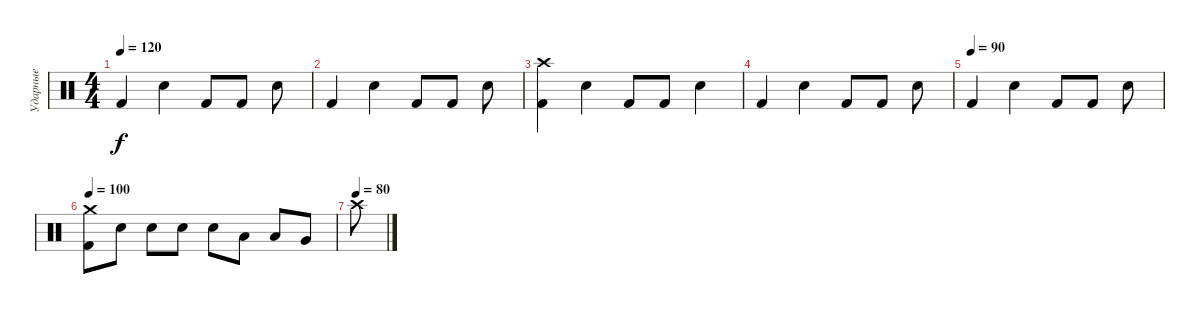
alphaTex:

\track ("Ударные" "Ударные") {instrument percussion}
\staff {score}
\articulation defaults
\ts (4 4)
\tempo 120
\clef neutral
\ks c "Kick (hit) 2".4{dy f} "Electric Snare (hit)".4 "Kick (hit) 2".8 "Kick (hit) 2".8 "Electric Snare (hit)".8
|
"Kick (hit) 2".4 "Electric Snare (hit)".4 "Kick (hit) 2".8 "Kick (hit) 2".8 "Electric Snare (hit)".8 |
("Kick (hit) 2" "Crash high (hit)").4 "Electric Snare (hit)".4 "Kick (hit) 2".8 "Kick (hit) 2".8 "Electric Snare (hit)".4 |
"Kick (hit) 2".4 "Electric Snare (hit)".4 "Kick (hit) 2".8 "Kick (hit) 2".8 "Electric Snare (hit)".8 |
\tempo (90)
"Kick (hit) 2".4 "Electric Snare (hit)".4 "Kick (hit) 2".8 "Kick (hit) 2".8 "Electric Snare (hit)".8 |
\tempo 85
\tempo 100
("Kick (hit) 2" "Crash medium (hit)").8 "Electric Snare (hit)".8 "Electric Snare (hit)".8 "Electric Snare (hit)".8 "Electric Snare (hit)".8 "Low Tom (hit)".8 "Low Tom (hit)".8 "Very Low Tom (hit)".8 |
\tempo (80)
"Crash high (hit)".8
